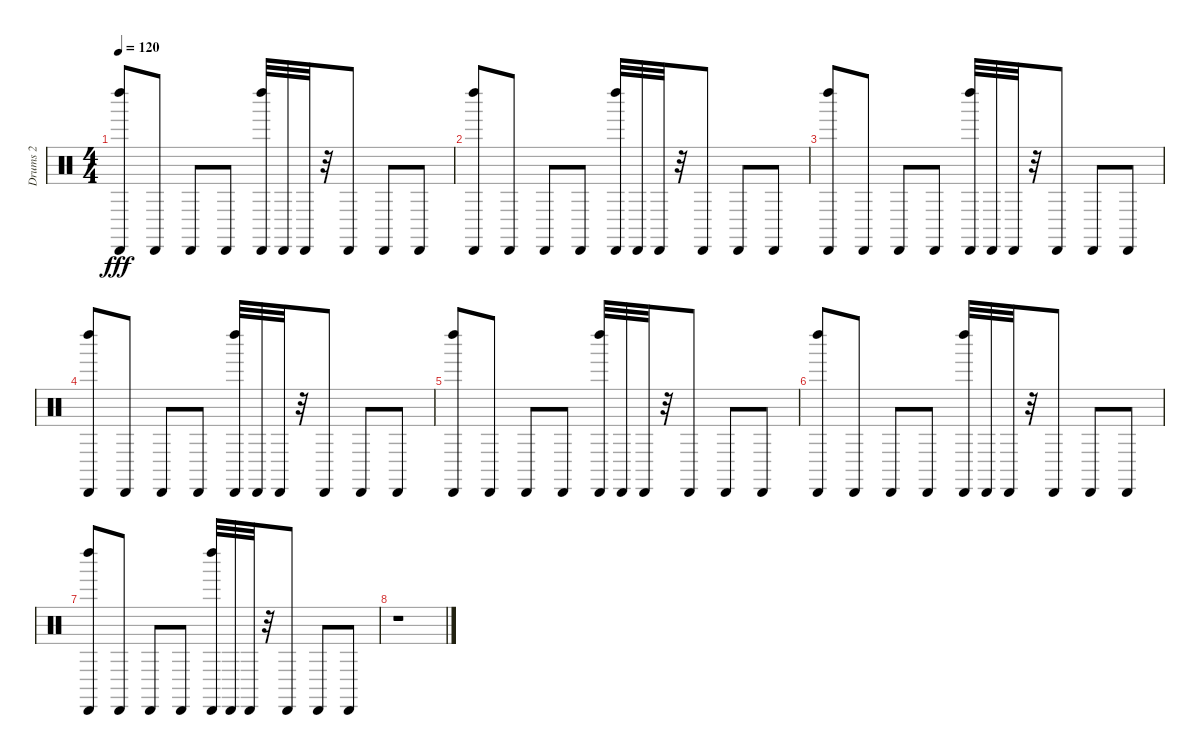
\track ("Drums 2" "Drums 2") {instrument percussion}
\staff {score}
\articulation defaults
\ts (4 4)
\tempo 120
\clef neutral
\ks c
("Cabasa (hit)" "Left Maraca (hit)").8{dy fff} "Cabasa (hit)".8 "Cabasa (hit)".8 "Cabasa (hit)".8 ("Cabasa (hit)" "Left Maraca (hit)").32 "Cabasa (hit)".32 "Cabasa (hit)".32 r.32 "Cabasa (hit)".8 "Cabasa (hit)".8 "Cabasa (hit)".8 |
("Cabasa (hit)" "Left Maraca (hit)").8 "Cabasa (hit)".8 "Cabasa (hit)".8 "Cabasa (hit)".8 ("Cabasa (hit)" "Left Maraca (hit)").32 "Cabasa (hit)".32 "Cabasa (hit)".32 r.32 "Cabasa (hit)".8 "Cabasa (hit)".8 "Cabasa (hit)".8 |
("Cabasa (hit)" "Left Maraca (hit)").8 "Cabasa (hit)".8 "Cabasa (hit)".8 "Cabasa (hit)".8 ("Cabasa (hit)" "Left Maraca (hit)").32 "Cabasa (hit)".32 "Cabasa (hit)".32 r.32 "Cabasa (hit)".8 "Cabasa (hit)".8 "Cabasa (hit)".8 |
("Cabasa (hit)" "Left Maraca (hit)").8 "Cabasa (hit)".8 "Cabasa (hit)".8 "Cabasa (hit)".8 ("Cabasa (hit)" "Left Maraca (hit)").32 "Cabasa (hit)".32 "Cabasa (hit)".32 r.32 "Cabasa (hit)".8 "Cabasa (hit)".8 "Cabasa (hit)".8 |
("Cabasa (hit)" "Left Maraca (hit)").8 "Cabasa (hit)".8 "Cabasa (hit)".8 "Cabasa (hit)".8 ("Cabasa (hit)" "Left Maraca (hit)").32 "Cabasa (hit)".32 "Cabasa (hit)".32 r.32 "Cabasa (hit)".8 "Cabasa (hit)".8 "Cabasa (hit)".8 |
("Cabasa (hit)" "Left Maraca (hit)").8 "Cabasa (hit)".8 "Cabasa (hit)".8 "Cabasa (hit)".8 ("Cabasa (hit)" "Left Maraca (hit)").32 "Cabasa (hit)".32 "Cabasa (hit)".32 r.32 "Cabasa (hit)".8 "Cabasa (hit)".8 "Cabasa (hit)".8 |
("Cabasa (hit)" "Left Maraca (hit)").8 "Cabasa (hit)".8 "Cabasa (hit)".8 "Cabasa (hit)".8 ("Cabasa (hit)" "Left Maraca (hit)").32 "Cabasa (hit)".32 "Cabasa (hit)".32 r.32 "Cabasa (hit)".8 "Cabasa (hit)".8 "Cabasa (hit)".8 |
r.1
